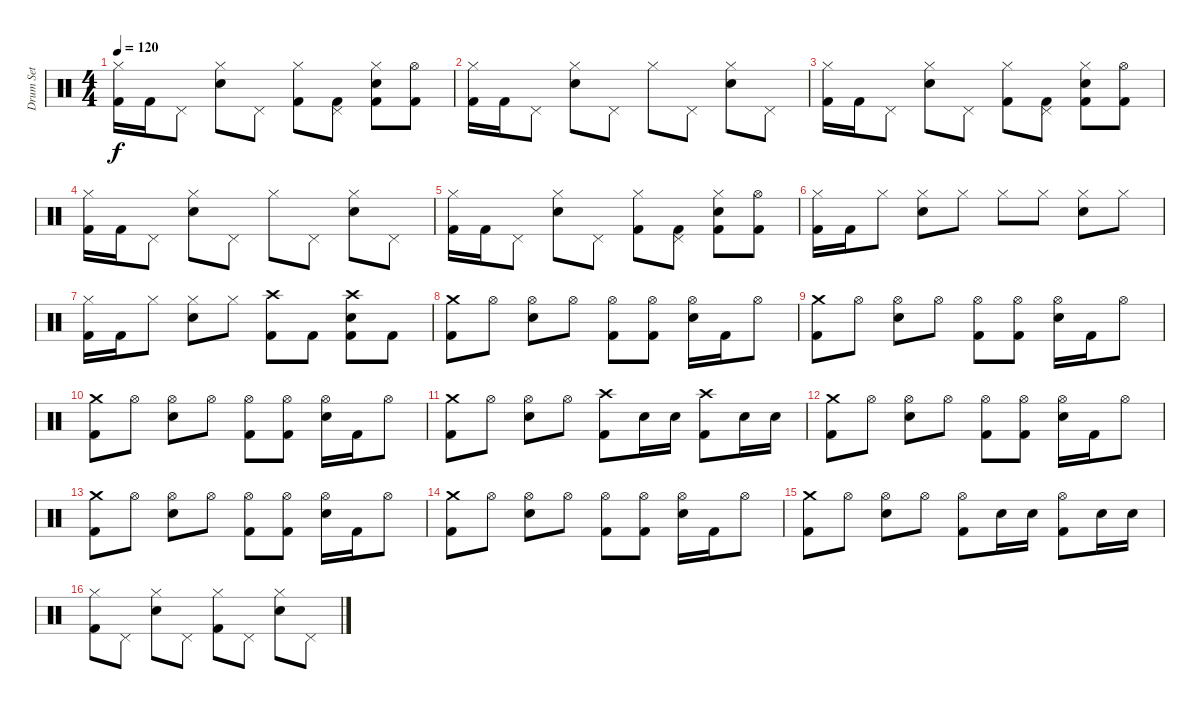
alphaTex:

\track ("Drum Set" "Drum Set") {instrument percussion}
\staff {score}
\articulation defaults
\ts (4 4)
\tempo 120
\clef neutral
\ks c
("Kick (hit) 2" "Hi-Hat (closed)").16{dy f} "Kick (hit) 2".16 "Pedal Hi-Hat (hit)".8 ("Hi-Hat (closed)" "Snare (hit) 2").8 "Pedal Hi-Hat (hit)".8 ("Hi-Hat (closed)" "Kick (hit) 2").8 ("Pedal Hi-Hat (hit)" "Kick (hit) 2").8 ("Hi-Hat (closed)" "Snare (hit) 2" "Kick (hit) 2").8 ("Hi-Hat (open)" "Kick (hit) 2").8 |
("Kick (hit) 2" "Hi-Hat (closed)").16 "Kick (hit) 2".16 "Pedal Hi-Hat (hit)".8 ("Hi-Hat (closed)" "Snare (hit) 2").8 "Pedal Hi-Hat (hit)".8 "Hi-Hat (closed)".8 "Pedal Hi-Hat (hit)".8 ("Hi-Hat (closed)" "Snare (hit) 2").8 "Pedal Hi-Hat (hit)".8 |
("Kick (hit) 2" "Hi-Hat (closed)").16 "Kick (hit) 2".16 "Pedal Hi-Hat (hit)".8 ("Hi-Hat (closed)" "Snare (hit) 2").8 "Pedal Hi-Hat (hit)".8 ("Hi-Hat (closed)" "Kick (hit) 2").8 ("Pedal Hi-Hat (hit)" "Kick (hit) 2").8 ("Hi-Hat (closed)" "Snare (hit) 2" "Kick (hit) 2").8 ("Hi-Hat (open)" "Kick (hit) 2").8 |
("Kick (hit) 2" "Hi-Hat (closed)").16 "Kick (hit) 2".16 "Pedal Hi-Hat (hit)".8 ("Hi-Hat (closed)" "Snare (hit) 2").8 "Pedal Hi-Hat (hit)".8 "Hi-Hat (closed)".8 "Pedal Hi-Hat (hit)".8 ("Hi-Hat (closed)" "Snare (hit) 2").8 "Pedal Hi-Hat (hit)".8 |
("Kick (hit) 2" "Hi-Hat (closed)").16 "Kick (hit) 2".16 "Pedal Hi-Hat (hit)".8 ("Hi-Hat (closed)" "Snare (hit) 2").8 "Pedal Hi-Hat (hit)".8 ("Hi-Hat (closed)" "Kick (hit) 2").8 ("Pedal Hi-Hat (hit)" "Kick (hit) 2").8 ("Hi-Hat (closed)" "Snare (hit) 2" "Kick (hit) 2").8 ("Hi-Hat (open)" "Kick (hit) 2").8 |
("Kick (hit) 2" "Hi-Hat (closed)").16 "Kick (hit) 2".16 "Hi-Hat (closed)".8 ("Hi-Hat (closed)" "Snare (hit) 2").8 "Hi-Hat (closed)".8 "Hi-Hat (closed)".8 "Hi-Hat (closed)".8 ("Hi-Hat (closed)" "Snare (hit) 2").8 "Hi-Hat (closed)".8 |
("Kick (hit) 2" "Hi-Hat (closed)").16 "Kick (hit) 2".16 "Hi-Hat (closed)".8 ("Hi-Hat (closed)" "Snare (hit) 2").8 "Hi-Hat (closed)".8 ("Crash high (hit)" "Kick (hit) 2").8 "Kick (hit) 2".8 ("Crash high (hit)" "Snare (hit) 2" "Kick (hit) 2").8 "Kick (hit) 2".8 |
("Crash medium (hit)" "Kick (hit) 2").8 "Hi-Hat (open)".8 ("Snare (hit) 2" "Hi-Hat (open)").8 "Hi-Hat (open)".8 ("Kick (hit) 2" "Hi-Hat (open)").8 ("Kick (hit) 2" "Hi-Hat (open)").8 ("Snare (hit) 2" "Hi-Hat (open)").16 "Kick (hit) 2".16 "Hi-Hat (open)".8 |
("Crash medium (hit)" "Kick (hit) 2").8 "Hi-Hat (open)".8 ("Snare (hit) 2" "Hi-Hat (open)").8 "Hi-Hat (open)".8 ("Kick (hit) 2" "Hi-Hat (open)").8 ("Kick (hit) 2" "Hi-Hat (open)").8 ("Snare (hit) 2" "Hi-Hat (open)").16 "Kick (hit) 2".16 "Hi-Hat (open)".8 |
("Crash medium (hit)" "Kick (hit) 2").8 "Hi-Hat (open)".8 ("Snare (hit) 2" "Hi-Hat (open)").8 "Hi-Hat (open)".8 ("Kick (hit) 2" "Hi-Hat (open)").8 ("Kick (hit) 2" "Hi-Hat (open)").8 ("Snare (hit) 2" "Hi-Hat (open)").16 "Kick (hit) 2".16 "Hi-Hat (open)".8 |
("Kick (hit) 2" "Crash medium (hit)").8 "Hi-Hat (open)".8 ("Hi-Hat (open)" "Snare (hit) 2").8 "Hi-Hat (open)".8 ("Kick (hit) 2" "Crash high (hit)").8 "Snare (hit) 2".16 "Snare (hit) 2".16 ("Kick (hit) 2" "Crash high (hit)").8 "Snare (hit) 2".16 "Snare (hit) 2".16 |
("Crash medium (hit)" "Kick (hit) 2").8 "Hi-Hat (open)".8 ("Snare (hit) 2" "Hi-Hat (open)").8 "Hi-Hat (open)".8 ("Kick (hit) 2" "Hi-Hat (open)").8 ("Kick (hit) 2" "Hi-Hat (open)").8 ("Snare (hit) 2" "Hi-Hat (open)").16 "Kick (hit) 2".16 "Hi-Hat (open)".8 |
("Crash medium (hit)" "Kick (hit) 2").8 "Hi-Hat (open)".8 ("Snare (hit) 2" "Hi-Hat (open)").8 "Hi-Hat (open)".8 ("Kick (hit) 2" "Hi-Hat (open)").8 ("Kick (hit) 2" "Hi-Hat (open)").8 ("Snare (hit) 2" "Hi-Hat (open)").16 "Kick (hit) 2".16 "Hi-Hat (open)".8 |
("Crash medium (hit)" "Kick (hit) 2").8 "Hi-Hat (open)".8 ("Snare (hit) 2" "Hi-Hat (open)").8 "Hi-Hat (open)".8 ("Kick (hit) 2" "Hi-Hat (open)").8 ("Kick (hit) 2" "Hi-Hat (open)").8 ("Snare (hit) 2" "Hi-Hat (open)").16 "Kick (hit) 2".16 "Hi-Hat (open)".8 |
("Kick (hit) 2" "Crash medium (hit)").8 "Hi-Hat (open)".8 ("Hi-Hat (open)" "Snare (hit) 2").8 "Hi-Hat (open)".8 ("Kick (hit) 2" "Hi-Hat (open)").8 "Snare (hit) 2".16 "Snare (hit) 2".16 ("Kick (hit) 2" "Hi-Hat (open)").8 "Snare (hit) 2".16 "Snare (hit) 2".16 |
("Hi-Hat (closed)" "Kick (hit) 2").8 "Pedal Hi-Hat (hit)".8 ("Hi-Hat (closed)" "Snare (hit) 2").8 "Pedal Hi-Hat (hit)".8 ("Hi-Hat (closed)" "Kick (hit) 2").8 "Pedal Hi-Hat (hit)".8 ("Hi-Hat (closed)" "Snare (hit) 2").8 "Pedal Hi-Hat (hit)".8
